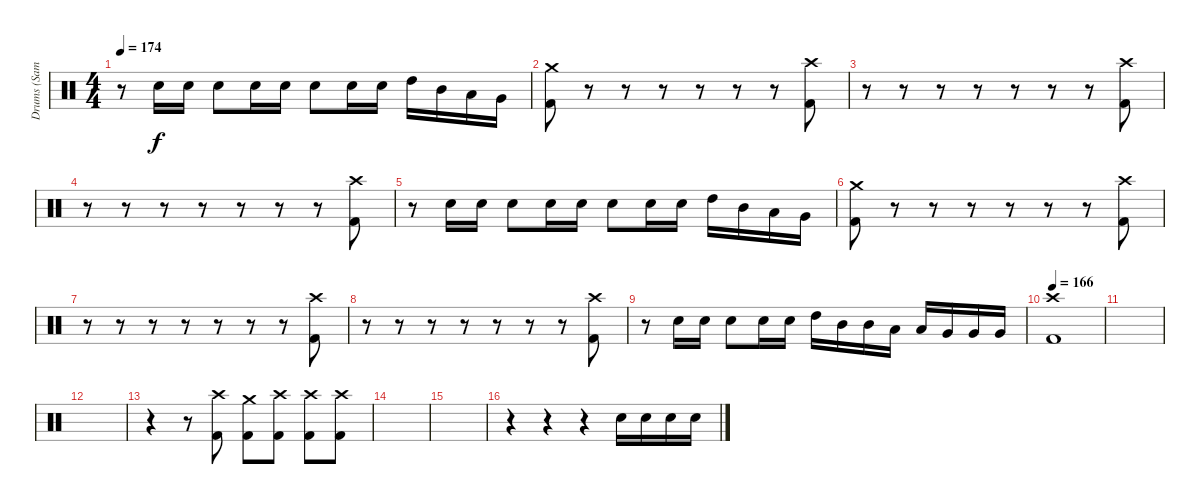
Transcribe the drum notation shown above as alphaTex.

\track ("Drums (Samuelson)" "Drums (Sam") {instrument percussion}
\staff
\articulation defaults
\ts (4 4)
\tempo 174
\clef neutral
\ks c
r.8{dy f} "Electric Snare (hit)".16 "Electric Snare (hit)".16 "Electric Snare (hit)".8 "Electric Snare (hit)".16 "Electric Snare (hit)".16 "Electric Snare (hit)".8 "Electric Snare (hit)".16 "Electric Snare (hit)".16 "High Tom (hit)".16 "Mid Tom (hit)".16 "Low Tom (hit)".16 "Very Low Tom (hit)".16 |
("Crash medium (hit)" "Kick (hit) 2").8 r.8 r.8 r.8 r.8 r.8 r.8 ("Crash high (hit)" "Kick (hit) 2").8 |
r.8 r.8 r.8 r.8 r.8 r.8 r.8 ("Crash high (hit)" "Kick (hit) 2").8 |
r.8 r.8 r.8 r.8 r.8 r.8 r.8 ("Crash high (hit)" "Kick (hit) 2").8 |
r.8 "Electric Snare (hit)".16 "Electric Snare (hit)".16 "Electric Snare (hit)".8 "Electric Snare (hit)".16 "Electric Snare (hit)".16 "Electric Snare (hit)".8 "Electric Snare (hit)".16 "Electric Snare (hit)".16 "High Tom (hit)".16 "Mid Tom (hit)".16 "Low Tom (hit)".16 "Very Low Tom (hit)".16 |
("Crash medium (hit)" "Kick (hit) 2").8 r.8 r.8 r.8 r.8 r.8 r.8 ("Crash high (hit)" "Kick (hit) 2").8 |
r.8 r.8 r.8 r.8 r.8 r.8 r.8 ("Crash high (hit)" "Kick (hit) 2").8 |
r.8 r.8 r.8 r.8 r.8 r.8 r.8 ("Crash high (hit)" "Kick (hit) 2").8 |
r.8 "Electric Snare (hit)".16 "Electric Snare (hit)".16 "Electric Snare (hit)".8 "Electric Snare (hit)".16 "Electric Snare (hit)".16 "High Tom (hit)".16 "Mid Tom (hit)".16 "Mid Tom (hit)".16 "Low Tom (hit)".16 "Low Tom (hit)".16 "Very Low Tom (hit)".16 "Very Low Tom (hit)".16 "Very Low Tom (hit)".16 |
\tempo 166
("Crash high (hit)" "Kick (hit) 2").1 |
|
|
r.4 r.8 ("Crash high (hit)" "Kick (hit) 2").8 ("Crash medium (hit)" "Kick (hit) 2").8 ("Crash high (hit)" "Kick (hit) 2").8 ("Crash high (hit)" "Kick (hit) 2").8 ("Crash high (hit)" "Kick (hit) 2").8 |
|
|
r.4 r.4 r.4 "Electric Snare (hit)".16 "Electric Snare (hit)".16 "Electric Snare (hit)".16 "Electric Snare (hit)".16
